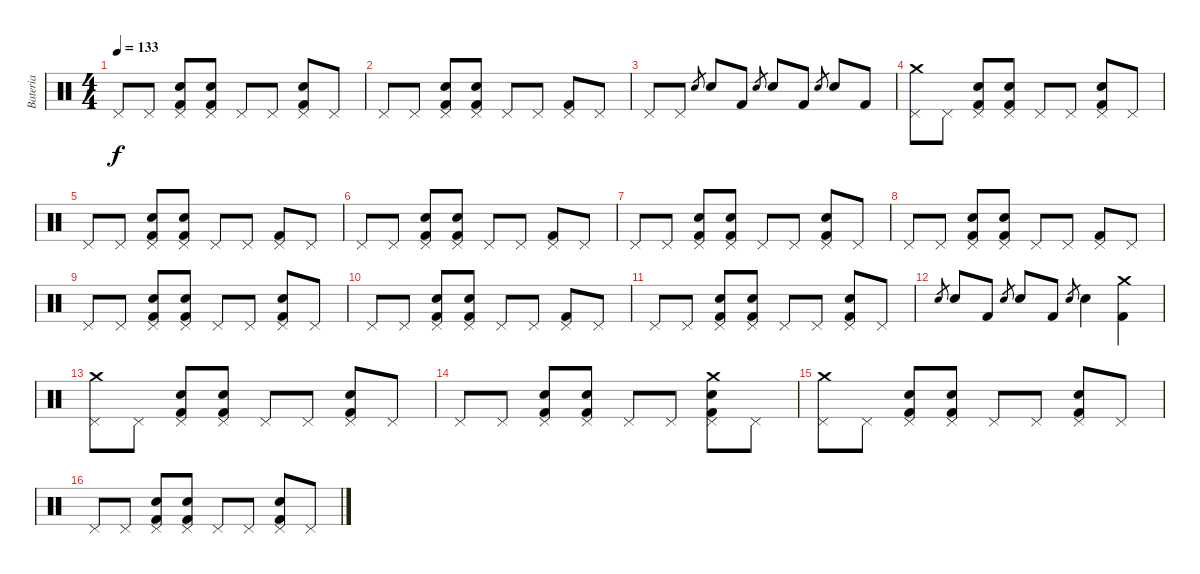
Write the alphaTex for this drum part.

\track ("Bateria" "Bateria") {instrument percussion}
\staff {score}
\articulation defaults
\ts (4 4)
\tempo 133
\clef neutral
\ks c "Pedal Hi-Hat (hit)".8{dy f} "Pedal Hi-Hat (hit)".8
("Kick (hit) 2" "Pedal Hi-Hat (hit)" "Electric Snare (hit)").8 ("Kick (hit) 2" "Pedal Hi-Hat (hit)" "Electric Snare (hit)").8 "Pedal Hi-Hat (hit)".8 "Pedal Hi-Hat (hit)".8 ("Kick (hit) 2" "Pedal Hi-Hat (hit)" "Electric Snare (hit)").8 "Pedal Hi-Hat (hit)".8 |
"Pedal Hi-Hat (hit)".8 "Pedal Hi-Hat (hit)".8 ("Kick (hit) 2" "Pedal Hi-Hat (hit)" "Electric Snare (hit)").8 ("Kick (hit) 2" "Pedal Hi-Hat (hit)" "Electric Snare (hit)").8 "Pedal Hi-Hat (hit)".8 "Pedal Hi-Hat (hit)".8 ("Kick (hit) 2" "Pedal Hi-Hat (hit)").8 "Pedal Hi-Hat (hit)".8 |
"Pedal Hi-Hat (hit)".8 "Pedal Hi-Hat (hit)".8 "Electric Snare (hit)".8{gr} "Electric Snare (hit)".8 "Kick (hit) 2".8 "Electric Snare (hit)".8{gr} "Electric Snare (hit)".8 "Kick (hit) 2".8 "Electric Snare (hit)".8{gr} "Electric Snare (hit)".8 "Kick (hit) 2".8 |
("Crash medium (hit)" "Pedal Hi-Hat (hit)").8 "Pedal Hi-Hat (hit)".8 ("Kick (hit) 2" "Pedal Hi-Hat (hit)" "Electric Snare (hit)").8 ("Kick (hit) 2" "Pedal Hi-Hat (hit)" "Electric Snare (hit)").8 "Pedal Hi-Hat (hit)".8 "Pedal Hi-Hat (hit)".8 ("Kick (hit) 2" "Pedal Hi-Hat (hit)" "Electric Snare (hit)").8 "Pedal Hi-Hat (hit)".8 |
"Pedal Hi-Hat (hit)".8 "Pedal Hi-Hat (hit)".8 ("Kick (hit) 2" "Pedal Hi-Hat (hit)" "Electric Snare (hit)").8 ("Kick (hit) 2" "Pedal Hi-Hat (hit)" "Electric Snare (hit)").8 "Pedal Hi-Hat (hit)".8 "Pedal Hi-Hat (hit)".8 ("Kick (hit) 2" "Pedal Hi-Hat (hit)").8 "Pedal Hi-Hat (hit)".8 |
"Pedal Hi-Hat (hit)".8 "Pedal Hi-Hat (hit)".8 ("Kick (hit) 2" "Pedal Hi-Hat (hit)" "Electric Snare (hit)").8 ("Kick (hit) 2" "Pedal Hi-Hat (hit)" "Electric Snare (hit)").8 "Pedal Hi-Hat (hit)".8 "Pedal Hi-Hat (hit)".8 ("Kick (hit) 2" "Pedal Hi-Hat (hit)").8 "Pedal Hi-Hat (hit)".8 |
"Pedal Hi-Hat (hit)".8 "Pedal Hi-Hat (hit)".8 ("Kick (hit) 2" "Pedal Hi-Hat (hit)" "Electric Snare (hit)").8 ("Kick (hit) 2" "Pedal Hi-Hat (hit)" "Electric Snare (hit)").8 "Pedal Hi-Hat (hit)".8 "Pedal Hi-Hat (hit)".8 ("Kick (hit) 2" "Pedal Hi-Hat (hit)" "Electric Snare (hit)").8 "Pedal Hi-Hat (hit)".8 |
"Pedal Hi-Hat (hit)".8 "Pedal Hi-Hat (hit)".8 ("Kick (hit) 2" "Pedal Hi-Hat (hit)" "Electric Snare (hit)").8 ("Kick (hit) 2" "Pedal Hi-Hat (hit)" "Electric Snare (hit)").8 "Pedal Hi-Hat (hit)".8 "Pedal Hi-Hat (hit)".8 ("Kick (hit) 2" "Pedal Hi-Hat (hit)").8 "Pedal Hi-Hat (hit)".8 |
"Pedal Hi-Hat (hit)".8 "Pedal Hi-Hat (hit)".8 ("Kick (hit) 2" "Pedal Hi-Hat (hit)" "Electric Snare (hit)").8 ("Kick (hit) 2" "Pedal Hi-Hat (hit)" "Electric Snare (hit)").8 "Pedal Hi-Hat (hit)".8 "Pedal Hi-Hat (hit)".8 ("Kick (hit) 2" "Pedal Hi-Hat (hit)" "Electric Snare (hit)").8 "Pedal Hi-Hat (hit)".8 |
"Pedal Hi-Hat (hit)".8 "Pedal Hi-Hat (hit)".8 ("Kick (hit) 2" "Pedal Hi-Hat (hit)" "Electric Snare (hit)").8 ("Kick (hit) 2" "Pedal Hi-Hat (hit)" "Electric Snare (hit)").8 "Pedal Hi-Hat (hit)".8 "Pedal Hi-Hat (hit)".8 ("Kick (hit) 2" "Pedal Hi-Hat (hit)").8 "Pedal Hi-Hat (hit)".8 |
"Pedal Hi-Hat (hit)".8 "Pedal Hi-Hat (hit)".8 ("Kick (hit) 2" "Pedal Hi-Hat (hit)" "Electric Snare (hit)").8 ("Kick (hit) 2" "Pedal Hi-Hat (hit)" "Electric Snare (hit)").8 "Pedal Hi-Hat (hit)".8 "Pedal Hi-Hat (hit)".8 ("Kick (hit) 2" "Pedal Hi-Hat (hit)" "Electric Snare (hit)").8 "Pedal Hi-Hat (hit)".8 |
"Electric Snare (hit)".8{gr} "Electric Snare (hit)".8 "Kick (hit) 2".8 "Electric Snare (hit)".8{gr} "Electric Snare (hit)".8 "Kick (hit) 2".8 "Electric Snare (hit)".8{gr} "Electric Snare (hit)".4 ("Crash medium (hit)" "Kick (hit) 2").4 |
("Crash medium (hit)" "Pedal Hi-Hat (hit)").8 "Pedal Hi-Hat (hit)".8 ("Kick (hit) 2" "Pedal Hi-Hat (hit)" "Electric Snare (hit)").8 ("Kick (hit) 2" "Pedal Hi-Hat (hit)" "Electric Snare (hit)").8 "Pedal Hi-Hat (hit)".8 "Pedal Hi-Hat (hit)".8 ("Kick (hit) 2" "Pedal Hi-Hat (hit)" "Electric Snare (hit)").8 "Pedal Hi-Hat (hit)".8 |
"Pedal Hi-Hat (hit)".8 "Pedal Hi-Hat (hit)".8 ("Kick (hit) 2" "Pedal Hi-Hat (hit)" "Electric Snare (hit)").8 ("Kick (hit) 2" "Pedal Hi-Hat (hit)" "Electric Snare (hit)").8 "Pedal Hi-Hat (hit)".8 "Pedal Hi-Hat (hit)".8 ("Crash medium (hit)" "Kick (hit) 2" "Pedal Hi-Hat (hit)" "Electric Snare (hit)").8 "Pedal Hi-Hat (hit)".8 |
("Crash medium (hit)" "Pedal Hi-Hat (hit)").8 "Pedal Hi-Hat (hit)".8 ("Kick (hit) 2" "Pedal Hi-Hat (hit)" "Electric Snare (hit)").8 ("Kick (hit) 2" "Pedal Hi-Hat (hit)" "Electric Snare (hit)").8 "Pedal Hi-Hat (hit)".8 "Pedal Hi-Hat (hit)".8 ("Kick (hit) 2" "Pedal Hi-Hat (hit)" "Electric Snare (hit)").8 "Pedal Hi-Hat (hit)".8 |
"Pedal Hi-Hat (hit)".8 "Pedal Hi-Hat (hit)".8 ("Kick (hit) 2" "Pedal Hi-Hat (hit)" "Electric Snare (hit)").8 ("Kick (hit) 2" "Pedal Hi-Hat (hit)" "Electric Snare (hit)").8 "Pedal Hi-Hat (hit)".8 "Pedal Hi-Hat (hit)".8 ("Kick (hit) 2" "Pedal Hi-Hat (hit)" "Electric Snare (hit)").8 "Pedal Hi-Hat (hit)".8
